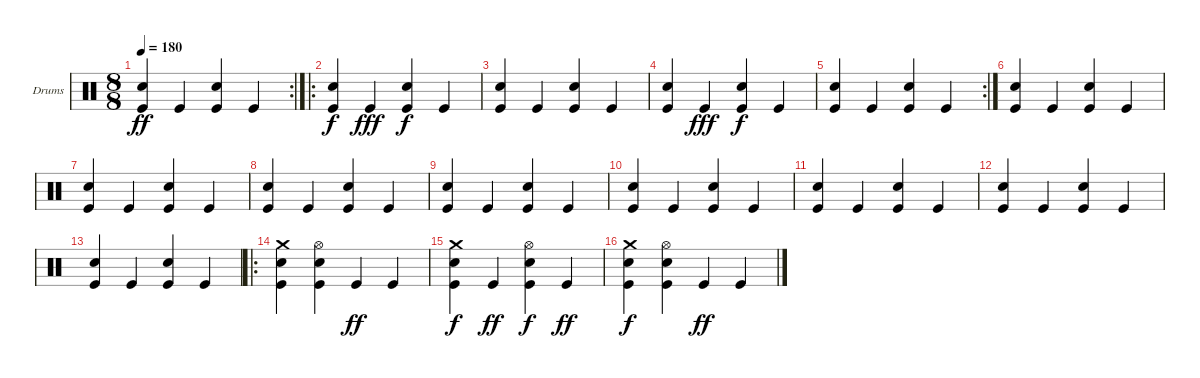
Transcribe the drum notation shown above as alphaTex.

\bracketExtendMode groupsimilarinstruments
\firstSystemTrackNameOrientation horizontal
\otherSystemsTrackNameOrientation horizontal
\track ("Drumkit" "Drums") {instrument percussion}
\staff {score}
\articulation defaults
\rc 2
\ts (8 8)
\tempo 180
\clef neutral
\ks c
("Snare (hit) 2" "Kick (hit)").4{dy ff} "Kick (hit)".4 ("Snare (hit) 2" "Kick (hit)").4 "Kick (hit)".4 |
\ro
("Snare (hit) 2" "Kick (hit)").4{dy f} "Kick (hit)".4{dy fff} ("Snare (hit) 2" "Kick (hit)").4{dy f} "Kick (hit)".4 |
("Snare (hit) 2" "Kick (hit)").4 "Kick (hit)".4 ("Snare (hit) 2" "Kick (hit)").4 "Kick (hit)".4 |
("Snare (hit) 2" "Kick (hit)").4 "Kick (hit)".4{dy fff} ("Snare (hit) 2" "Kick (hit)").4{dy f} "Kick (hit)".4 |
\rc 2
("Snare (hit) 2" "Kick (hit)").4 "Kick (hit)".4 ("Snare (hit) 2" "Kick (hit)").4 "Kick (hit)".4 |
("Snare (hit) 2" "Kick (hit)").4 "Kick (hit)".4 ("Snare (hit) 2" "Kick (hit)").4 "Kick (hit)".4 |
("Snare (hit) 2" "Kick (hit)").4 "Kick (hit)".4 ("Snare (hit) 2" "Kick (hit)").4 "Kick (hit)".4 |
("Snare (hit) 2" "Kick (hit)").4 "Kick (hit)".4 ("Snare (hit) 2" "Kick (hit)").4 "Kick (hit)".4 |
("Snare (hit) 2" "Kick (hit)").4 "Kick (hit)".4 ("Snare (hit) 2" "Kick (hit)").4 "Kick (hit)".4 |
("Snare (hit) 2" "Kick (hit)").4 "Kick (hit)".4 ("Snare (hit) 2" "Kick (hit)").4 "Kick (hit)".4 |
("Snare (hit) 2" "Kick (hit)").4 "Kick (hit)".4 ("Snare (hit) 2" "Kick (hit)").4 "Kick (hit)".4 |
("Snare (hit) 2" "Kick (hit)").4 "Kick (hit)".4 ("Snare (hit) 2" "Kick (hit)").4 "Kick (hit)".4 |
("Snare (hit) 2" "Kick (hit)").4 "Kick (hit)".4 ("Snare (hit) 2" "Kick (hit)").4 "Kick (hit)".4 |
\ro
("Crash medium (hit)" "Snare (hit) 2" "Kick (hit)").4 ("Hi-Hat (open)" "Snare (hit) 2" "Kick (hit)").4 "Kick (hit)".4{dy ff} "Kick (hit)".4 |
("Crash medium (hit)" "Snare (hit) 2" "Kick (hit)").4{dy f} "Kick (hit)".4{dy ff} ("Hi-Hat (open)" "Snare (hit) 2" "Kick (hit)").4{dy f} "Kick (hit)".4{dy ff} |
("Crash medium (hit)" "Snare (hit) 2" "Kick (hit)").4{dy f} ("Hi-Hat (open)" "Snare (hit) 2" "Kick (hit)").4 "Kick (hit)".4{dy ff} "Kick (hit)".4
